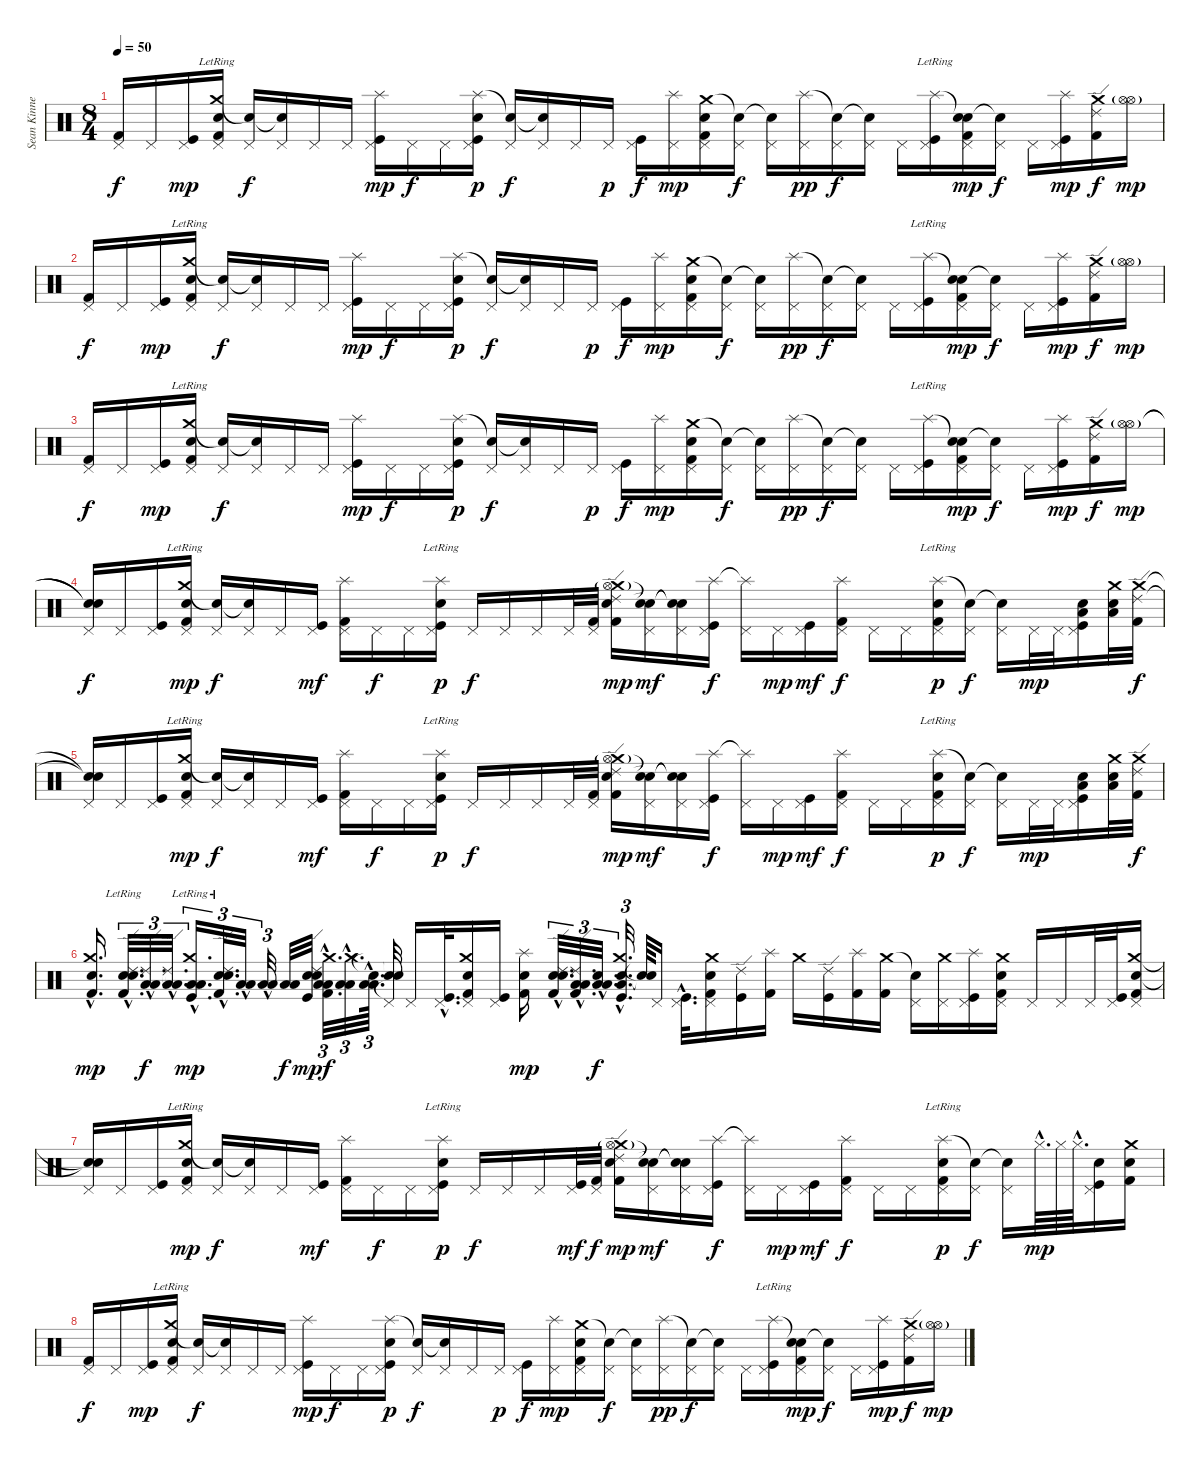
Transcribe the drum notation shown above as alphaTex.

\track ("Sean Kinney" "Sean Kinne") {instrument percussion}
\staff {score}
\articulation defaults
\ts (8 4)
\tempo 50
\clef neutral
\ks c
("Pedal Hi-Hat (hit)" "Kick (hit) 2").16{dy f} "Pedal Hi-Hat (hit)".16 ("Pedal Hi-Hat (hit)" "Kick (hit)").16{dy mp} ("Crash medium (hit)"{lr} "Snare (hit) 2" "Pedal Hi-Hat (hit)" "Kick (hit) 2").16 ("Snare (hit)"{t} "Pedal Hi-Hat (hit)").16{dy f} ("Snare (hit)"{t} "Pedal Hi-Hat (hit)").16 "Pedal Hi-Hat (hit)".16 "Pedal Hi-Hat (hit)".16 ("Splash (hit)" "Pedal Hi-Hat (hit)" "Kick (hit)").16{dy mp} "Pedal Hi-Hat (hit)".16{dy f} "Pedal Hi-Hat (hit)".16 ("Splash (hit)" "Snare (hit) 2" "Pedal Hi-Hat (hit)" "Kick (hit)").16{dy p} ("Snare (hit)"{t} "Pedal Hi-Hat (hit)").16{dy f} ("Snare (hit)"{t} "Pedal Hi-Hat (hit)").16 "Pedal Hi-Hat (hit)".16 "Pedal Hi-Hat (hit)".16{dy p} ("Pedal Hi-Hat (hit)" "Kick (hit)").16{dy f} ("Splash (hit)" "Pedal Hi-Hat (hit)").16{dy mp} ("Crash medium (hit)" "Snare (hit) 2" "Pedal Hi-Hat (hit)" "Kick (hit) 2").16 ("Snare (hit)"{t} "Pedal Hi-Hat (hit)").16{dy f} ("Snare (hit)"{t} "Pedal Hi-Hat (hit)").16 ("Splash (hit)" "Pedal Hi-Hat (hit)").16{dy pp} ("Snare (hit)"{t} "Pedal Hi-Hat (hit)").16{dy f} ("Snare (hit)"{t} "Pedal Hi-Hat (hit)").16 "Pedal Hi-Hat (hit)".16 ("Splash (hit)"{lr} "Pedal Hi-Hat (hit)" "Kick (hit)").16 ("Snare (hit)"{t} "Snare (hit) 2" "Pedal Hi-Hat (hit)" "Kick (hit) 2").16{dy mp} ("Snare (hit)"{t} "Pedal Hi-Hat (hit)").16{dy f} "Pedal Hi-Hat (hit)".16 ("Splash (hit)" "Pedal Hi-Hat (hit)" "Kick (hit)").16{dy mp} ("Crash medium (hit)" "Ride (edge) 2" "Kick (hit) 2").16{dy f} ("Hi-Hat (open)"{g} "Hi-Hat (open)").16{dy mp} |
("Pedal Hi-Hat (hit)" "Kick (hit) 2").16{dy f} "Pedal Hi-Hat (hit)".16 ("Pedal Hi-Hat (hit)" "Kick (hit)").16{dy mp} ("Crash medium (hit)"{lr} "Snare (hit) 2" "Pedal Hi-Hat (hit)" "Kick (hit) 2").16 ("Snare (hit)"{t} "Pedal Hi-Hat (hit)").16{dy f} ("Snare (hit)"{t} "Pedal Hi-Hat (hit)").16 "Pedal Hi-Hat (hit)".16 "Pedal Hi-Hat (hit)".16 ("Splash (hit)" "Pedal Hi-Hat (hit)" "Kick (hit)").16{dy mp} "Pedal Hi-Hat (hit)".16{dy f} "Pedal Hi-Hat (hit)".16 ("Splash (hit)" "Snare (hit) 2" "Pedal Hi-Hat (hit)" "Kick (hit)").16{dy p} ("Snare (hit)"{t} "Pedal Hi-Hat (hit)").16{dy f} ("Snare (hit)"{t} "Pedal Hi-Hat (hit)").16 "Pedal Hi-Hat (hit)".16 "Pedal Hi-Hat (hit)".16{dy p} ("Pedal Hi-Hat (hit)" "Kick (hit)").16{dy f} ("Splash (hit)" "Pedal Hi-Hat (hit)").16{dy mp} ("Crash medium (hit)" "Snare (hit) 2" "Pedal Hi-Hat (hit)" "Kick (hit) 2").16 ("Snare (hit)"{t} "Pedal Hi-Hat (hit)").16{dy f} ("Snare (hit)"{t} "Pedal Hi-Hat (hit)").16 ("Splash (hit)" "Pedal Hi-Hat (hit)").16{dy pp} ("Snare (hit)"{t} "Pedal Hi-Hat (hit)").16{dy f} ("Snare (hit)"{t} "Pedal Hi-Hat (hit)").16 "Pedal Hi-Hat (hit)".16 ("Splash (hit)"{lr} "Pedal Hi-Hat (hit)" "Kick (hit)").16 ("Snare (hit)"{t} "Snare (hit) 2" "Pedal Hi-Hat (hit)" "Kick (hit) 2").16{dy mp} ("Snare (hit)"{t} "Pedal Hi-Hat (hit)").16{dy f} "Pedal Hi-Hat (hit)".16 ("Splash (hit)" "Pedal Hi-Hat (hit)" "Kick (hit)").16{dy mp} ("Crash medium (hit)" "Ride (edge) 2" "Kick (hit) 2").16{dy f} ("Hi-Hat (open)"{g} "Hi-Hat (open)").16{dy mp} |
("Pedal Hi-Hat (hit)" "Kick (hit) 2").16{dy f} "Pedal Hi-Hat (hit)".16 ("Pedal Hi-Hat (hit)" "Kick (hit)").16{dy mp} ("Crash medium (hit)"{lr} "Snare (hit) 2" "Pedal Hi-Hat (hit)" "Kick (hit) 2").16 ("Snare (hit)"{t} "Pedal Hi-Hat (hit)").16{dy f} ("Snare (hit)"{t} "Pedal Hi-Hat (hit)").16 "Pedal Hi-Hat (hit)".16 "Pedal Hi-Hat (hit)".16 ("Splash (hit)" "Pedal Hi-Hat (hit)" "Kick (hit)").16{dy mp} "Pedal Hi-Hat (hit)".16{dy f} "Pedal Hi-Hat (hit)".16 ("Splash (hit)" "Snare (hit) 2" "Pedal Hi-Hat (hit)" "Kick (hit)").16{dy p} ("Snare (hit)"{t} "Pedal Hi-Hat (hit)").16{dy f} ("Snare (hit)"{t} "Pedal Hi-Hat (hit)").16 "Pedal Hi-Hat (hit)".16 "Pedal Hi-Hat (hit)".16{dy p} ("Pedal Hi-Hat (hit)" "Kick (hit)").16{dy f} ("Splash (hit)" "Pedal Hi-Hat (hit)").16{dy mp} ("Crash medium (hit)" "Snare (hit) 2" "Pedal Hi-Hat (hit)" "Kick (hit) 2").16 ("Snare (hit)"{t} "Pedal Hi-Hat (hit)").16{dy f} ("Snare (hit)"{t} "Pedal Hi-Hat (hit)").16 ("Splash (hit)" "Pedal Hi-Hat (hit)").16{dy pp} ("Snare (hit)"{t} "Pedal Hi-Hat (hit)").16{dy f} ("Snare (hit)"{t} "Pedal Hi-Hat (hit)").16 "Pedal Hi-Hat (hit)".16 ("Splash (hit)"{lr} "Pedal Hi-Hat (hit)" "Kick (hit)").16 ("Snare (hit)"{t} "Snare (hit) 2" "Pedal Hi-Hat (hit)" "Kick (hit) 2").16{dy mp} ("Snare (hit)"{t} "Pedal Hi-Hat (hit)").16{dy f} "Pedal Hi-Hat (hit)".16 ("Splash (hit)" "Pedal Hi-Hat (hit)" "Kick (hit)").16{dy mp} ("Crash medium (hit)" "Ride (edge) 2" "Kick (hit) 2").16{dy f} ("Hi-Hat (open)"{g} "Hi-Hat (open)").16{dy mp} |
("Snare (hit)"{t} "Snare (hit)"{t} "Pedal Hi-Hat (hit)").16{dy f} "Pedal Hi-Hat (hit)".16 ("Pedal Hi-Hat (hit)" "Kick (hit)").16 ("Crash medium (hit)"{lr} "Snare (hit) 2" "Pedal Hi-Hat (hit)" "Kick (hit) 2").16{dy mp} ("Snare (hit)"{t} "Pedal Hi-Hat (hit)").16{dy f} ("Snare (hit)"{t} "Pedal Hi-Hat (hit)").16 "Pedal Hi-Hat (hit)".16 ("Pedal Hi-Hat (hit)" "Kick (hit)").16{dy mf} ("Splash (hit)" "Pedal Hi-Hat (hit)" "Kick (hit) 2").16 "Pedal Hi-Hat (hit)".16{dy f} "Pedal Hi-Hat (hit)".16 ("Splash (hit)"{lr} "Snare (hit) 2" "Pedal Hi-Hat (hit)" "Kick (hit)").16{dy p} "Pedal Hi-Hat (hit)".16{dy f} "Pedal Hi-Hat (hit)".16 "Pedal Hi-Hat (hit)".16 "Pedal Hi-Hat (hit)".32 ("Pedal Hi-Hat (hit)" "Kick (hit) 2").32 ("Crash medium (hit)" "Ride (edge) 2" "Snare (hit) 2" "Hi-Hat (open)"{g} "Kick (hit) 2").16{dy mp} ("Snare (hit)"{t} "Snare (hit)"{t} "Pedal Hi-Hat (hit)").16{dy mf} ("Snare (hit)"{t} "Snare (hit)"{t} "Pedal Hi-Hat (hit)").16 ("Splash (hit)" "Pedal Hi-Hat (hit)" "Kick (hit)").16{dy f} ("Splash (hit)"{t} "Pedal Hi-Hat (hit)").16 "Pedal Hi-Hat (hit)".16{dy mp} ("Pedal Hi-Hat (hit)" "Kick (hit)").16{dy mf} ("Splash (hit)" "Pedal Hi-Hat (hit)" "Kick (hit) 2").16{dy f} "Pedal Hi-Hat (hit)".16 "Pedal Hi-Hat (hit)".16 ("Splash (hit)"{lr} "Snare (hit) 2" "Pedal Hi-Hat (hit)" "Kick (hit) 2").16{dy p} ("Snare (hit)"{t} "Pedal Hi-Hat (hit)").16{dy f} ("Snare (hit)"{t} "Pedal Hi-Hat (hit)").16 "Pedal Hi-Hat (hit)".32{dy mp} "Pedal Hi-Hat (hit)".32 ("Low Tom (hit)" "Snare (hit) 2" "Pedal Hi-Hat (hit)" "Kick (hit)").16 ("Crash medium (hit)" "Low Floor Tom (hit)" "Snare (hit) 2").32 ("Crash medium (hit)" "Ride (edge) 2" "Kick (hit) 2").32{dy f} |
("Snare (hit)"{t} "Snare (hit)"{t} "Pedal Hi-Hat (hit)").16 "Pedal Hi-Hat (hit)".16 ("Pedal Hi-Hat (hit)" "Kick (hit)").16 ("Crash medium (hit)"{lr} "Snare (hit) 2" "Pedal Hi-Hat (hit)" "Kick (hit) 2").16{dy mp} ("Snare (hit)"{t} "Pedal Hi-Hat (hit)").16{dy f} ("Snare (hit)"{t} "Pedal Hi-Hat (hit)").16 "Pedal Hi-Hat (hit)".16 ("Pedal Hi-Hat (hit)" "Kick (hit)").16{dy mf} ("Splash (hit)" "Pedal Hi-Hat (hit)" "Kick (hit) 2").16 "Pedal Hi-Hat (hit)".16{dy f} "Pedal Hi-Hat (hit)".16 ("Splash (hit)"{lr} "Snare (hit) 2" "Pedal Hi-Hat (hit)" "Kick (hit)").16{dy p} "Pedal Hi-Hat (hit)".16{dy f} "Pedal Hi-Hat (hit)".16 "Pedal Hi-Hat (hit)".16 "Pedal Hi-Hat (hit)".32 ("Pedal Hi-Hat (hit)" "Kick (hit) 2").32 ("Crash medium (hit)" "Ride (edge) 2" "Snare (hit) 2" "Hi-Hat (open)"{g} "Kick (hit) 2").16{dy mp} ("Snare (hit)"{t} "Snare (hit)"{t} "Pedal Hi-Hat (hit)").16{dy mf} ("Snare (hit)"{t} "Snare (hit)"{t} "Pedal Hi-Hat (hit)").16 ("Splash (hit)" "Pedal Hi-Hat (hit)" "Kick (hit)").16{dy f} ("Splash (hit)"{t} "Pedal Hi-Hat (hit)").16 "Pedal Hi-Hat (hit)".16{dy mp} ("Pedal Hi-Hat (hit)" "Kick (hit)").16{dy mf} ("Splash (hit)" "Pedal Hi-Hat (hit)" "Kick (hit) 2").16{dy f} "Pedal Hi-Hat (hit)".16 "Pedal Hi-Hat (hit)".16 ("Splash (hit)"{lr} "Snare (hit) 2" "Pedal Hi-Hat (hit)" "Kick (hit) 2").16{dy p} ("Snare (hit)"{t} "Pedal Hi-Hat (hit)").16{dy f} ("Snare (hit)"{t} "Pedal Hi-Hat (hit)").16 "Pedal Hi-Hat (hit)".32{dy mp} "Pedal Hi-Hat (hit)".32 ("Low Tom (hit)" "Snare (hit) 2" "Pedal Hi-Hat (hit)" "Kick (hit)").16 ("Crash medium (hit)" "Low Floor Tom (hit)" "Snare (hit) 2").32 ("Crash medium (hit)" "Ride (edge) 2" "Kick (hit) 2").32{dy f} |
("Crash medium (hit)"{hac} "Snare (hit) 2"{hac} "Kick (hit) 2"{hac}).16{d dy mp} ("Ride (edge) 2"{hac lr} "Electric Snare (hit)"{hac} "Snare (hit) 2"{hac} "Kick (hit) 2"{hac}).32{d tu (3 2)} ("Ride (edge) 2"{hac} "Low Floor Tom (hit)"{hac} "Low Floor Tom (hit)"{hac}).32{d tu (3 2) dy f} ("Ride (edge) 2"{hac t} "Low Floor Tom (hit)"{hac} "Low Floor Tom (hit)"{hac}).32{d tu (3 2)} ("Crash medium (hit)"{hac lr} "Low Tom (hit)"{hac} "Low Tom (hit)"{hac} "Kick (hit)"{hac}).16{d tu (3 2) dy mp} ("Ride (edge) 2"{hac lr} "Electric Snare (hit)"{hac} "Snare (hit) 2"{hac} "Kick (hit) 2"{hac}).32{d tu (3 2)} ("Low Floor Tom (hit)"{hac} "Low Floor Tom (hit)"{hac}).32{d tu (3 2)} ("Low Floor Tom (hit)"{hac} "Low Floor Tom (hit)"{hac}).32{d tu (3 2)} ("Low Tom (hit)" "Low Tom (hit)").32{dy f} ("Ride (edge) 2" "Electric Snare (hit)" "Snare (hit) 2" "Kick (hit)").32{dy mp} ("Crash medium (hit)"{hac} "Low Floor Tom (hit)"{hac} "Low Floor Tom (hit)"{hac} "Kick (hit) 2"{hac}).32{d tu (3 2) dy f} ("Crash medium (hit)"{hac} "Low Floor Tom (hit)"{hac} "Low Floor Tom (hit)"{hac}).32{d tu (3 2)} ("Snare (hit)"{hac t} "Low Tom (hit)"{hac} "Low Tom (hit)"{hac}).64{d tu (3 2)} ("Snare (hit)"{t} "Snare (hit)"{t} "Pedal Hi-Hat (hit)"{t}).32 "Pedal Hi-Hat (hit)".16 ("Pedal Hi-Hat (hit)"{hac} "Kick (hit)"{hac}).32{d} ("Crash medium (hit)" "Snare (hit) 2" "Pedal Hi-Hat (hit)" "Kick (hit) 2").16 ("Pedal Hi-Hat (hit)" "Kick (hit)").16 ("Splash (hit)" "Snare (hit) 2" "Kick (hit) 2").16{dy mp} ("Ride (edge) 2"{hac} "Electric Snare (hit)"{hac} "Snare (hit) 2"{hac} "Kick (hit) 2"{hac}).32{d tu (3 2)} ("Ride (edge) 2"{hac} "Low Floor Tom (hit)"{hac} "Low Floor Tom (hit)"{hac} "Kick (hit) 2"{hac}).32{d tu (3 2)} ("Snare (hit)"{hac t} "Low Floor Tom (hit)"{hac} "Low Floor Tom (hit)"{hac}).32{d tu (3 2) dy f} ("Crash medium (hit)"{hac} "Snare (hit) 2"{hac} "Low Tom (hit)"{hac} "Kick (hit)"{hac}).32{d tu (3 2)} ("Snare (hit)"{t} "Snare (hit)"{t}).64 "Pedal Hi-Hat (hit)".16 ("Pedal Hi-Hat (hit)"{hac} "Kick (hit)"{hac}).32{d} ("Crash medium (hit)" "Snare (hit) 2" "Pedal Hi-Hat (hit)" "Kick (hit) 2").16 ("Ride (edge) 2" "Kick (hit)").16 ("Splash (hit)" "Kick (hit) 2").16 "Crash medium (hit)".16 ("Ride (edge) 2" "Kick (hit)").16 ("Splash (hit)" "Kick (hit) 2").16 ("Crash medium (hit)" "Kick (hit) 2").16 ("Snare (hit)"{t} "Pedal Hi-Hat (hit)").16 ("Crash medium (hit)" "Pedal Hi-Hat (hit)").16 ("Splash (hit)" "Pedal Hi-Hat (hit)" "Kick (hit)").16 ("Crash medium (hit)" "Snare (hit) 2" "Pedal Hi-Hat (hit)" "Kick (hit) 2").16 "Pedal Hi-Hat (hit)".16 "Pedal Hi-Hat (hit)".16 "Pedal Hi-Hat (hit)".32 ("Pedal Hi-Hat (hit)" "Kick (hit)").32 ("Crash medium (hit)" "Snare (hit) 2" "Pedal Hi-Hat (hit)" "Kick (hit) 2").16 |
("Snare (hit)"{t} "Snare (hit)"{t} "Pedal Hi-Hat (hit)").16 "Pedal Hi-Hat (hit)".16 ("Pedal Hi-Hat (hit)" "Kick (hit)").16 ("Crash medium (hit)"{lr} "Snare (hit) 2" "Pedal Hi-Hat (hit)" "Kick (hit) 2").16{dy mp} ("Snare (hit)"{t} "Pedal Hi-Hat (hit)").16{dy f} ("Snare (hit)"{t} "Pedal Hi-Hat (hit)").16 "Pedal Hi-Hat (hit)".16 ("Pedal Hi-Hat (hit)" "Kick (hit)").16{dy mf} ("Splash (hit)" "Pedal Hi-Hat (hit)" "Kick (hit) 2").16 "Pedal Hi-Hat (hit)".16{dy f} "Pedal Hi-Hat (hit)".16 ("Splash (hit)"{lr} "Snare (hit) 2" "Pedal Hi-Hat (hit)" "Kick (hit)").16{dy p} "Pedal Hi-Hat (hit)".16{dy f} "Pedal Hi-Hat (hit)".16 "Pedal Hi-Hat (hit)".16 ("Pedal Hi-Hat (hit)" "Kick (hit)").32{dy mf} ("Pedal Hi-Hat (hit)" "Kick (hit) 2").32{dy f} ("Crash medium (hit)" "Ride (edge) 2" "Snare (hit) 2" "Hi-Hat (open)"{g} "Kick (hit) 2").16{dy mp} ("Snare (hit)"{t} "Snare (hit)"{t} "Pedal Hi-Hat (hit)").16{dy mf} ("Snare (hit)"{t} "Snare (hit)"{t} "Pedal Hi-Hat (hit)").16 ("Splash (hit)" "Pedal Hi-Hat (hit)" "Kick (hit)").16{dy f} ("Splash (hit)"{t} "Pedal Hi-Hat (hit)").16 "Pedal Hi-Hat (hit)".16{dy mp} ("Pedal Hi-Hat (hit)" "Kick (hit)").16{dy mf} ("Splash (hit)" "Pedal Hi-Hat (hit)" "Kick (hit) 2").16{dy f} "Pedal Hi-Hat (hit)".16 "Pedal Hi-Hat (hit)".16 ("Splash (hit)"{lr} "Snare (hit) 2" "Pedal Hi-Hat (hit)" "Kick (hit) 2").16{dy p} ("Snare (hit)"{t} "Pedal Hi-Hat (hit)").16{dy f} ("Snare (hit)"{t} "Pedal Hi-Hat (hit)").16 "Hi-Hat (closed)"{hac}.64{d dy mp} "Hi-Hat (closed)".64 "Hi-Hat (closed)"{hac}.64{d} ("Snare (hit) 2" "Pedal Hi-Hat (hit)" "Kick (hit)").16 ("Crash medium (hit)" "Snare (hit) 2" "Kick (hit) 2").16 |
("Pedal Hi-Hat (hit)" "Kick (hit) 2").16{dy f} "Pedal Hi-Hat (hit)".16 ("Pedal Hi-Hat (hit)" "Kick (hit)").16{dy mp} ("Crash medium (hit)"{lr} "Snare (hit) 2" "Pedal Hi-Hat (hit)" "Kick (hit) 2").16 ("Snare (hit)"{t} "Pedal Hi-Hat (hit)").16{dy f} ("Snare (hit)"{t} "Pedal Hi-Hat (hit)").16 "Pedal Hi-Hat (hit)".16 "Pedal Hi-Hat (hit)".16 ("Splash (hit)" "Pedal Hi-Hat (hit)" "Kick (hit)").16{dy mp} "Pedal Hi-Hat (hit)".16{dy f} "Pedal Hi-Hat (hit)".16 ("Splash (hit)" "Snare (hit) 2" "Pedal Hi-Hat (hit)" "Kick (hit)").16{dy p} ("Snare (hit)"{t} "Pedal Hi-Hat (hit)").16{dy f} ("Snare (hit)"{t} "Pedal Hi-Hat (hit)").16 "Pedal Hi-Hat (hit)".16 "Pedal Hi-Hat (hit)".16{dy p} ("Pedal Hi-Hat (hit)" "Kick (hit)").16{dy f} ("Splash (hit)" "Pedal Hi-Hat (hit)").16{dy mp} ("Crash medium (hit)" "Snare (hit) 2" "Pedal Hi-Hat (hit)" "Kick (hit) 2").16 ("Snare (hit)"{t} "Pedal Hi-Hat (hit)").16{dy f} ("Snare (hit)"{t} "Pedal Hi-Hat (hit)").16 ("Splash (hit)" "Pedal Hi-Hat (hit)").16{dy pp} ("Snare (hit)"{t} "Pedal Hi-Hat (hit)").16{dy f} ("Snare (hit)"{t} "Pedal Hi-Hat (hit)").16 "Pedal Hi-Hat (hit)".16 ("Splash (hit)"{lr} "Pedal Hi-Hat (hit)" "Kick (hit)").16 ("Snare (hit)"{t} "Snare (hit) 2" "Pedal Hi-Hat (hit)" "Kick (hit) 2").16{dy mp} ("Snare (hit)"{t} "Pedal Hi-Hat (hit)").16{dy f} "Pedal Hi-Hat (hit)".16 ("Splash (hit)" "Pedal Hi-Hat (hit)" "Kick (hit)").16{dy mp} ("Crash medium (hit)" "Ride (edge) 2" "Kick (hit) 2").16{dy f} ("Hi-Hat (open)"{g} "Hi-Hat (open)").16{dy mp}
